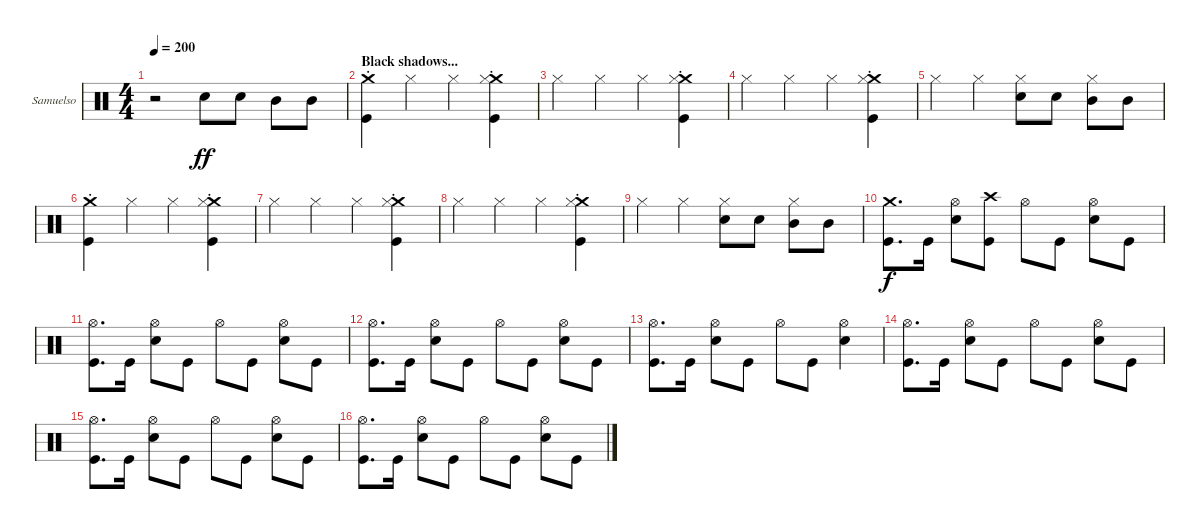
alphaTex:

\bracketExtendMode groupsimilarinstruments
\firstSystemTrackNameOrientation horizontal
\otherSystemsTrackNameOrientation horizontal
\track ("Gar Samuelson" "Samuelso") {instrument percussion}
\staff {score}
\articulation defaults
\ts (4 4)
\tempo 200
\clef neutral
\ks c
r.2{dy ff} "Snare (hit) 2".8 "Snare (hit) 2".8 "Mid Tom (hit)".8 "Mid Tom (hit)".8 |
\section ("" "Black shadows...")
("Crash medium (hit)"{st} "Kick (hit)"{st}).4 "Hi-Hat (closed)".4 "Hi-Hat (closed)".4 ("Crash medium (hit)"{st} "Kick (hit)"{st} "Hi-Hat (closed)"{st}).4 |
"Hi-Hat (closed)".4 "Hi-Hat (closed)".4 "Hi-Hat (closed)".4 ("Crash medium (hit)"{st} "Kick (hit)"{st} "Hi-Hat (closed)"{st}).4 |
"Hi-Hat (closed)".4 "Hi-Hat (closed)".4 "Hi-Hat (closed)".4 ("Crash medium (hit)"{st} "Kick (hit)"{st} "Hi-Hat (closed)"{st}).4 |
"Hi-Hat (closed)".4 "Hi-Hat (closed)".4 ("Snare (hit) 2" "Hi-Hat (closed)").8 "Snare (hit) 2".8 ("Mid Tom (hit)" "Hi-Hat (closed)").8 "Mid Tom (hit)".8 |
("Crash medium (hit)"{st} "Kick (hit)"{st}).4 "Hi-Hat (closed)".4 "Hi-Hat (closed)".4 ("Crash medium (hit)"{st} "Kick (hit)"{st} "Hi-Hat (closed)"{st}).4 |
"Hi-Hat (closed)".4 "Hi-Hat (closed)".4 "Hi-Hat (closed)".4 ("Crash medium (hit)"{st} "Kick (hit)"{st} "Hi-Hat (closed)"{st}).4 |
"Hi-Hat (closed)".4 "Hi-Hat (closed)".4 "Hi-Hat (closed)".4 ("Crash medium (hit)"{st} "Kick (hit)"{st} "Hi-Hat (closed)"{st}).4 |
"Hi-Hat (closed)".4 "Hi-Hat (closed)".4 ("Snare (hit) 2" "Hi-Hat (closed)").8 "Snare (hit) 2".8 ("Mid Tom (hit)" "Hi-Hat (closed)").8 "Mid Tom (hit)".8 |
("Crash medium (hit)" "Kick (hit)").8{d dy f} "Kick (hit)".16 ("Hi-Hat (open)" "Snare (hit) 2").8 ("Crash high (hit)" "Kick (hit)").8 "Hi-Hat (open)".8 "Kick (hit)".8 ("Hi-Hat (open)" "Snare (hit) 2").8 "Kick (hit)".8 |
("Hi-Hat (open)" "Kick (hit)").8{d} "Kick (hit)".16 ("Snare (hit) 2" "Hi-Hat (open)").8 "Kick (hit)".8 "Hi-Hat (open)".8 "Kick (hit)".8 ("Snare (hit) 2" "Hi-Hat (open)").8 "Kick (hit)".8 |
("Hi-Hat (open)" "Kick (hit)").8{d} "Kick (hit)".16 ("Snare (hit) 2" "Hi-Hat (open)").8 "Kick (hit)".8 "Hi-Hat (open)".8 "Kick (hit)".8 ("Snare (hit) 2" "Hi-Hat (open)").8 "Kick (hit)".8 |
("Hi-Hat (open)" "Kick (hit)").8{d} "Kick (hit)".16 ("Snare (hit) 2" "Hi-Hat (open)").8 "Kick (hit)".8 "Hi-Hat (open)".8 "Kick (hit)".8 ("Snare (hit) 2" "Hi-Hat (open)").4 |
("Hi-Hat (open)" "Kick (hit)").8{d} "Kick (hit)".16 ("Snare (hit) 2" "Hi-Hat (open)").8 "Kick (hit)".8 "Hi-Hat (open)".8 "Kick (hit)".8 ("Snare (hit) 2" "Hi-Hat (open)").8 "Kick (hit)".8 |
("Hi-Hat (open)" "Kick (hit)").8{d} "Kick (hit)".16 ("Snare (hit) 2" "Hi-Hat (open)").8 "Kick (hit)".8 "Hi-Hat (open)".8 "Kick (hit)".8 ("Snare (hit) 2" "Hi-Hat (open)").8 "Kick (hit)".8 |
("Hi-Hat (open)" "Kick (hit)").8{d} "Kick (hit)".16 ("Snare (hit) 2" "Hi-Hat (open)").8 "Kick (hit)".8 "Hi-Hat (open)".8 "Kick (hit)".8 ("Snare (hit) 2" "Hi-Hat (open)").8 "Kick (hit)".8
